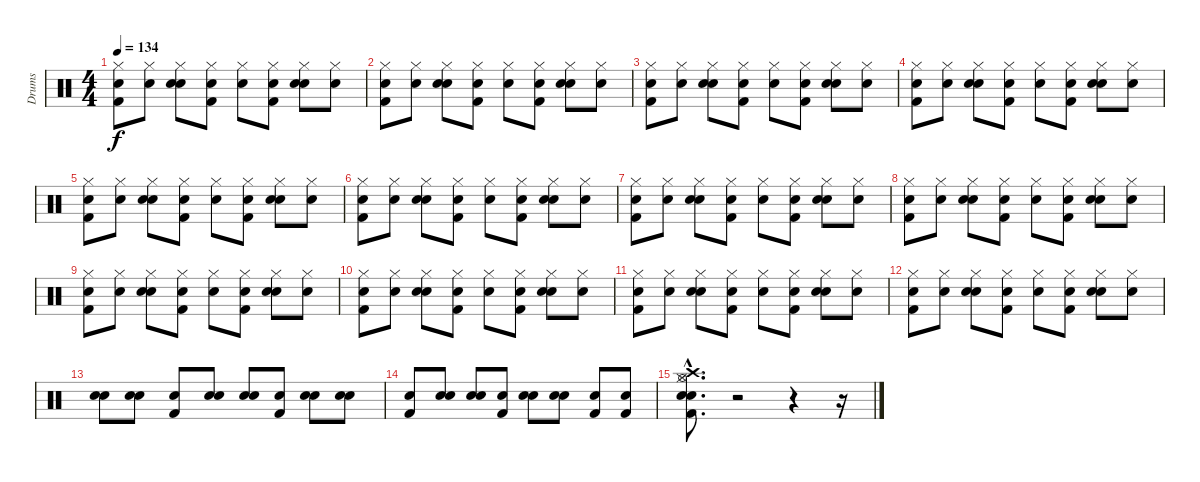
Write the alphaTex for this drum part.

\track ("Drums" "Drums") {instrument percussion}
\staff {score}
\articulation defaults
\ts (4 4)
\tempo 134
\clef neutral
\ks c
("Snare (hit)" "Kick (hit) 2" "Hi-Hat (closed)").8{dy f} ("Snare (hit)" "Hi-Hat (closed)").8 ("Snare (hit)" "Snare (hit) 2" "Hi-Hat (closed)").8 ("Snare (hit)" "Kick (hit) 2" "Hi-Hat (closed)").8 ("Snare (hit)" "Hi-Hat (closed)").8 ("Snare (hit)" "Kick (hit) 2" "Hi-Hat (closed)").8 ("Snare (hit)" "Snare (hit) 2" "Hi-Hat (closed)").8 ("Snare (hit)" "Hi-Hat (closed)").8 |
("Snare (hit)" "Kick (hit) 2" "Hi-Hat (closed)").8 ("Snare (hit)" "Hi-Hat (closed)").8 ("Snare (hit)" "Snare (hit) 2" "Hi-Hat (closed)").8 ("Snare (hit)" "Kick (hit) 2" "Hi-Hat (closed)").8 ("Snare (hit)" "Hi-Hat (closed)").8 ("Snare (hit)" "Kick (hit) 2" "Hi-Hat (closed)").8 ("Snare (hit)" "Snare (hit) 2" "Hi-Hat (closed)").8 ("Snare (hit)" "Hi-Hat (closed)").8 |
("Snare (hit)" "Kick (hit) 2" "Hi-Hat (closed)").8 ("Snare (hit)" "Hi-Hat (closed)").8 ("Snare (hit)" "Snare (hit) 2" "Hi-Hat (closed)").8 ("Snare (hit)" "Kick (hit) 2" "Hi-Hat (closed)").8 ("Snare (hit)" "Hi-Hat (closed)").8 ("Snare (hit)" "Kick (hit) 2" "Hi-Hat (closed)").8 ("Snare (hit)" "Snare (hit) 2" "Hi-Hat (closed)").8 ("Snare (hit)" "Hi-Hat (closed)").8 |
("Snare (hit)" "Kick (hit) 2" "Hi-Hat (closed)").8 ("Snare (hit)" "Hi-Hat (closed)").8 ("Snare (hit)" "Snare (hit) 2" "Hi-Hat (closed)").8 ("Snare (hit)" "Kick (hit) 2" "Hi-Hat (closed)").8 ("Snare (hit)" "Hi-Hat (closed)").8 ("Snare (hit)" "Kick (hit) 2" "Hi-Hat (closed)").8 ("Snare (hit)" "Snare (hit) 2" "Hi-Hat (closed)").8 ("Snare (hit)" "Hi-Hat (closed)").8 |
("Snare (hit)" "Kick (hit) 2" "Hi-Hat (closed)").8 ("Snare (hit)" "Hi-Hat (closed)").8 ("Snare (hit)" "Snare (hit) 2" "Hi-Hat (closed)").8 ("Snare (hit)" "Kick (hit) 2" "Hi-Hat (closed)").8 ("Snare (hit)" "Hi-Hat (closed)").8 ("Snare (hit)" "Kick (hit) 2" "Hi-Hat (closed)").8 ("Snare (hit)" "Snare (hit) 2" "Hi-Hat (closed)").8 ("Snare (hit)" "Hi-Hat (closed)").8 |
("Snare (hit)" "Kick (hit) 2" "Hi-Hat (closed)").8 ("Snare (hit)" "Hi-Hat (closed)").8 ("Snare (hit)" "Snare (hit) 2" "Hi-Hat (closed)").8 ("Snare (hit)" "Kick (hit) 2" "Hi-Hat (closed)").8 ("Snare (hit)" "Hi-Hat (closed)").8 ("Snare (hit)" "Kick (hit) 2" "Hi-Hat (closed)").8 ("Snare (hit)" "Snare (hit) 2" "Hi-Hat (closed)").8 ("Snare (hit)" "Hi-Hat (closed)").8 |
("Snare (hit)" "Kick (hit) 2" "Hi-Hat (closed)").8 ("Snare (hit)" "Hi-Hat (closed)").8 ("Snare (hit)" "Snare (hit) 2" "Hi-Hat (closed)").8 ("Snare (hit)" "Kick (hit) 2" "Hi-Hat (closed)").8 ("Snare (hit)" "Hi-Hat (closed)").8 ("Snare (hit)" "Kick (hit) 2" "Hi-Hat (closed)").8 ("Snare (hit)" "Snare (hit) 2" "Hi-Hat (closed)").8 ("Snare (hit)" "Hi-Hat (closed)").8 |
("Snare (hit)" "Kick (hit) 2" "Hi-Hat (closed)").8 ("Snare (hit)" "Hi-Hat (closed)").8 ("Snare (hit)" "Snare (hit) 2" "Hi-Hat (closed)").8 ("Snare (hit)" "Kick (hit) 2" "Hi-Hat (closed)").8 ("Snare (hit)" "Hi-Hat (closed)").8 ("Snare (hit)" "Kick (hit) 2" "Hi-Hat (closed)").8 ("Snare (hit)" "Snare (hit) 2" "Hi-Hat (closed)").8 ("Snare (hit)" "Hi-Hat (closed)").8 |
("Snare (hit)" "Kick (hit) 2" "Hi-Hat (closed)").8 ("Snare (hit)" "Hi-Hat (closed)").8 ("Snare (hit)" "Snare (hit) 2" "Hi-Hat (closed)").8 ("Snare (hit)" "Kick (hit) 2" "Hi-Hat (closed)").8 ("Snare (hit)" "Hi-Hat (closed)").8 ("Snare (hit)" "Kick (hit) 2" "Hi-Hat (closed)").8 ("Snare (hit)" "Snare (hit) 2" "Hi-Hat (closed)").8 ("Snare (hit)" "Hi-Hat (closed)").8 |
("Snare (hit)" "Kick (hit) 2" "Hi-Hat (closed)").8 ("Snare (hit)" "Hi-Hat (closed)").8 ("Snare (hit)" "Snare (hit) 2" "Hi-Hat (closed)").8 ("Snare (hit)" "Kick (hit) 2" "Hi-Hat (closed)").8 ("Snare (hit)" "Hi-Hat (closed)").8 ("Snare (hit)" "Kick (hit) 2" "Hi-Hat (closed)").8 ("Snare (hit)" "Snare (hit) 2" "Hi-Hat (closed)").8 ("Snare (hit)" "Hi-Hat (closed)").8 |
("Snare (hit)" "Kick (hit) 2" "Hi-Hat (closed)").8 ("Snare (hit)" "Hi-Hat (closed)").8 ("Snare (hit)" "Snare (hit) 2" "Hi-Hat (closed)").8 ("Snare (hit)" "Kick (hit) 2" "Hi-Hat (closed)").8 ("Snare (hit)" "Hi-Hat (closed)").8 ("Snare (hit)" "Kick (hit) 2" "Hi-Hat (closed)").8 ("Snare (hit)" "Snare (hit) 2" "Hi-Hat (closed)").8 ("Snare (hit)" "Hi-Hat (closed)").8 |
("Snare (hit)" "Kick (hit) 2" "Hi-Hat (closed)").8 ("Snare (hit)" "Hi-Hat (closed)").8 ("Snare (hit)" "Snare (hit) 2" "Hi-Hat (closed)").8 ("Snare (hit)" "Kick (hit) 2" "Hi-Hat (closed)").8 ("Snare (hit)" "Hi-Hat (closed)").8 ("Snare (hit)" "Kick (hit) 2" "Hi-Hat (closed)").8 ("Snare (hit)" "Snare (hit) 2" "Hi-Hat (closed)").8 ("Snare (hit)" "Hi-Hat (closed)").8 |
("Snare (hit)" "Snare (hit) 2").8 ("Snare (hit)" "Snare (hit) 2").8 ("Snare (hit)" "Kick (hit) 2").8 ("Snare (hit)" "Snare (hit) 2").8 ("Snare (hit)" "Snare (hit) 2").8 ("Snare (hit)" "Kick (hit) 2").8 ("Snare (hit)" "Snare (hit) 2").8 ("Snare (hit)" "Snare (hit) 2").8 |
("Snare (hit)" "Kick (hit) 2").8 ("Snare (hit)" "Snare (hit) 2").8 ("Snare (hit)" "Snare (hit) 2").8 ("Snare (hit)" "Kick (hit) 2").8 ("Snare (hit)" "Snare (hit) 2").8 ("Snare (hit)" "Snare (hit) 2").8 ("Snare (hit)" "Kick (hit) 2").8 ("Snare (hit)" "Kick (hit) 2").8 |
("Snare (hit)"{hac} "Kick (hit) 2"{hac} "Snare (hit) 2"{hac} "Hi-Hat (closed)"{hac} "Hi-Hat (open)"{hac} "Crash high (hit)"{hac}).8{d} r.2 r.4 r.16
